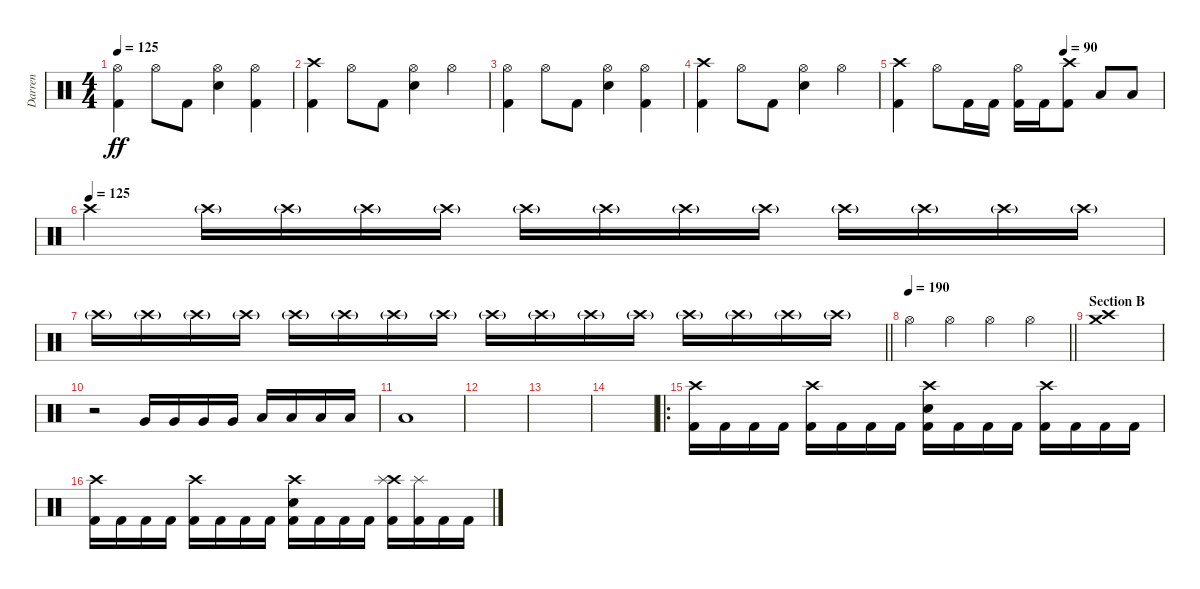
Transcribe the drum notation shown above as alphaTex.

\track ("Darren" "Darren") {instrument percussion}
\staff {score}
\articulation defaults
\ts (4 4)
\tempo 125
\clef neutral
\ks c
("Hi-Hat (open)" "Kick (hit) 2").4{dy ff} "Hi-Hat (open)".8 "Kick (hit) 2".8 ("Hi-Hat (open)" "Electric Snare (hit)").4 ("Hi-Hat (open)" "Kick (hit) 2").4 |
("Crash high (hit)" "Kick (hit) 2").4 "Hi-Hat (open)".8 "Kick (hit) 2".8 ("Hi-Hat (open)" "Electric Snare (hit)").4 "Hi-Hat (open)".4 |
("Hi-Hat (open)" "Kick (hit) 2").4 "Hi-Hat (open)".8 "Kick (hit) 2".8 ("Hi-Hat (open)" "Electric Snare (hit)").4 ("Hi-Hat (open)" "Kick (hit) 2").4 |
("Crash high (hit)" "Kick (hit) 2").4 "Hi-Hat (open)".8 "Kick (hit) 2".8 ("Hi-Hat (open)" "Electric Snare (hit)").4 "Hi-Hat (open)".4 |
\tempo (90 0.625)
("Crash high (hit)" "Kick (hit) 2").4 "Hi-Hat (open)".8 "Kick (hit) 2".16 "Kick (hit) 2".16 ("Hi-Hat (open)" "Kick (hit) 2").16 "Kick (hit) 2".16 ("Crash high (hit)" "Kick (hit) 2").8 "Low Floor Tom (hit)".8 "Low Floor Tom (hit)".8 |
\tempo (125)
"Crash high (hit)".4 "Crash high (hit)"{g}.16{volume 9} "Crash high (hit)"{g}.16 "Crash high (hit)"{g}.16 "Crash high (hit)"{g}.16 "Crash high (hit)"{g}.16 "Crash high (hit)"{g}.16 "Crash high (hit)"{g}.16 "Crash high (hit)"{g}.16 "Crash high (hit)"{g}.16 "Crash high (hit)"{g}.16 "Crash high (hit)"{g}.16 "Crash high (hit)"{g}.16 |
\barLineRight lightlight "Crash high (hit)"{g}.16{volume 11} "Crash high (hit)"{g}.16 "Crash high (hit)"{g}.16 "Crash high (hit)"{g}.16 "Crash high (hit)"{g}.16 "Crash high (hit)"{g}.16 "Crash high (hit)"{g}.16 "Crash high (hit)"{g}.16 "Crash high (hit)"{g}.16{volume 13} "Crash high (hit)"{g}.16 "Crash high (hit)"{g}.16 "Crash high (hit)"{g}.16 "Crash high (hit)"{g}.16 "Crash high (hit)"{g}.16 "Crash high (hit)"{g}.16 "Crash high (hit)"{g}.16
|
\section ("" "")
\tempo 190
\barLineRight lightlight "Hi-Hat (open)".4{volume 16} "Hi-Hat (open)".4 "Hi-Hat (open)".4 "Hi-Hat (open)".4
|
\section ("" "Section B")
("Crash medium (hit)" "Crash high (hit)").1 |
r.2 "Very Low Tom (hit)".16 "Very Low Tom (hit)".16 "Very Low Tom (hit)".16 "Very Low Tom (hit)".16 "Low Floor Tom (hit)".16 "Low Floor Tom (hit)".16 "Low Floor Tom (hit)".16 "Low Floor Tom (hit)".16 |
"Low Floor Tom (hit)".1 |
|
|
|
\ro
("Crash high (hit)" "Kick (hit) 2").16 "Kick (hit) 2".16 "Kick (hit) 2".16 "Kick (hit) 2".16 ("Crash high (hit)" "Kick (hit) 2").16 "Kick (hit) 2".16 "Kick (hit) 2".16 "Kick (hit) 2".16 ("Crash high (hit)" "Electric Snare (hit)" "Kick (hit) 2").16 "Kick (hit) 2".16 "Kick (hit) 2".16 "Kick (hit) 2".16 ("Crash high (hit)" "Kick (hit) 2").16 "Kick (hit) 2".16 "Kick (hit) 2".16 "Kick (hit) 2".16 |
("Crash high (hit)" "Kick (hit) 2").16 "Kick (hit) 2".16 "Kick (hit) 2".16 "Kick (hit) 2".16 ("Crash high (hit)" "Kick (hit) 2").16 "Kick (hit) 2".16 "Kick (hit) 2".16 "Kick (hit) 2".16 ("Crash high (hit)" "Electric Snare (hit)" "Kick (hit) 2").16 "Kick (hit) 2".16 "Kick (hit) 2".16 "Kick (hit) 2".16 ("Crash high (hit)" "Splash (hit)" "Kick (hit) 2").16 ("Splash (hit)" "Kick (hit) 2").16 "Kick (hit) 2".16 "Kick (hit) 2".16
